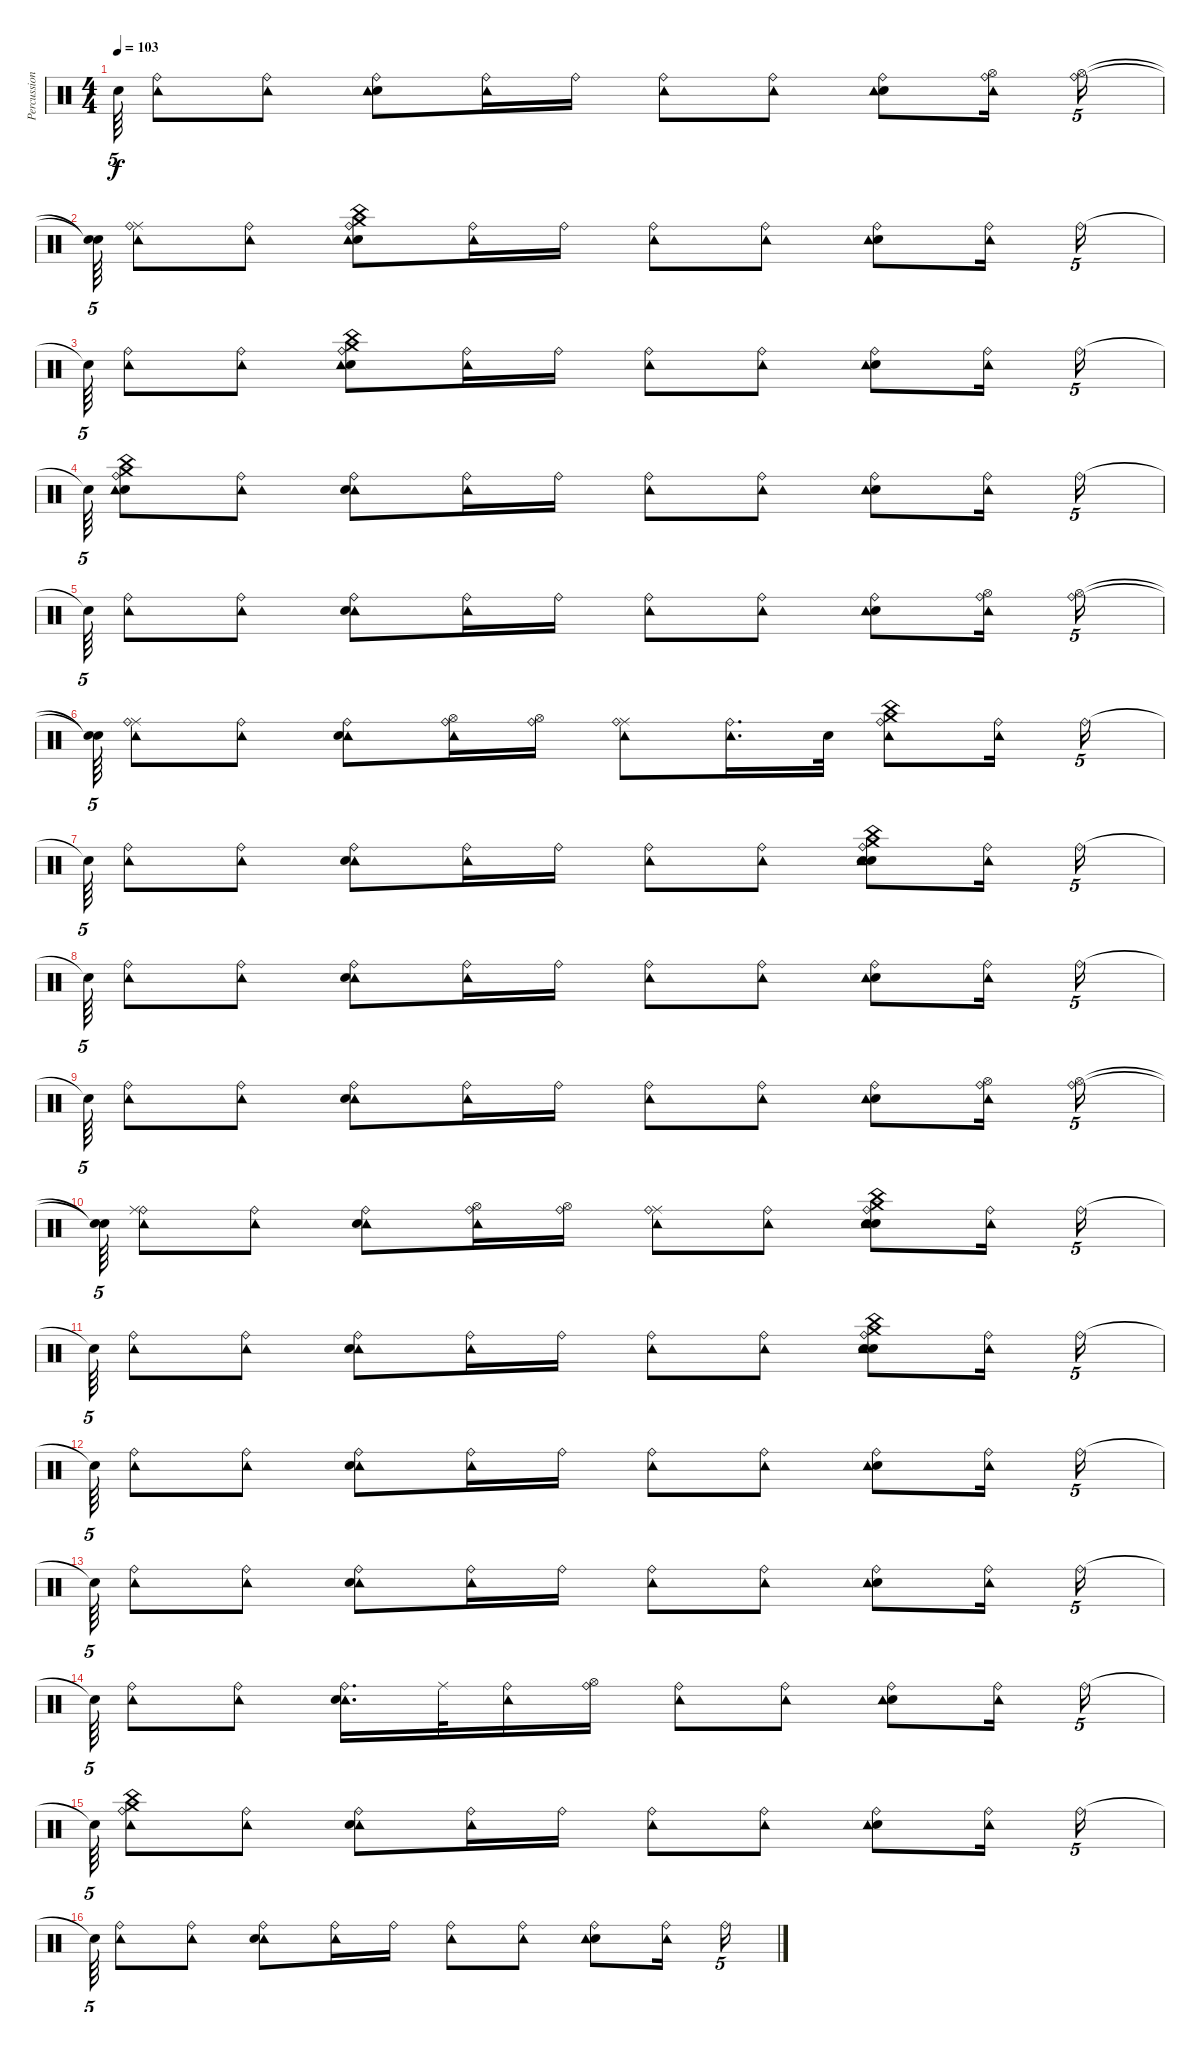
\track ("Percussion" "Percussion") {instrument percussion}
\staff {score}
\articulation defaults
\ts (4 4)
\tempo 103
\clef neutral
\ks c "Snare (hit)"{t}.64{tu (5 4) dy f}
("Ride (bell)" "Tambourine (hit)").8 ("Ride (bell)" "Tambourine (hit)").8 ("Snare (hit) 2" "Ride (bell)" "Tambourine (hit)").8 ("Ride (bell)" "Tambourine (hit)").16 "Ride (bell)".16 ("Ride (bell)" "Tambourine (hit)").8 ("Ride (bell)" "Tambourine (hit)").8 ("Snare (hit) 2" "Ride (bell)" "Tambourine (hit)").8 ("Hi-Hat (open)" "Ride (bell)" "Tambourine (hit)").16 ("Hi-Hat (open)" "Ride (bell)").16{tu (5 4)} |
("Snare (hit)"{t} "Snare (hit)"{t}).64{tu (5 4)} ("Ride (middle)" "Ride (bell)" "Tambourine (hit)").8 ("Ride (bell)" "Tambourine (hit)").8 ("Snare (hit) 2" "Crash medium (hit)" "China (hit)" "Ride (bell)" "Tambourine (hit)").8 ("Ride (bell)" "Tambourine (hit)").16 "Ride (bell)".16 ("Ride (bell)" "Tambourine (hit)").8 ("Ride (bell)" "Tambourine (hit)").8 ("Ride (bell)" "Snare (hit) 2" "Tambourine (hit)").8 ("Ride (bell)" "Tambourine (hit)").16 "Ride (bell)".16{tu (5 4)} |
"Snare (hit)"{t}.64{tu (5 4)} ("Ride (bell)" "Tambourine (hit)").8 ("Ride (bell)" "Tambourine (hit)").8 ("Snare (hit) 2" "Crash medium (hit)" "China (hit)" "Ride (bell)" "Tambourine (hit)").8 ("Ride (bell)" "Tambourine (hit)").16 "Ride (bell)".16 ("Ride (bell)" "Tambourine (hit)").8 ("Ride (bell)" "Tambourine (hit)").8 ("Ride (bell)" "Snare (hit) 2" "Tambourine (hit)").8 ("Ride (bell)" "Tambourine (hit)").16 "Ride (bell)".16{tu (5 4)} |
"Snare (hit)"{t}.64{tu (5 4)} ("Snare (hit) 2" "Crash medium (hit)" "China (hit)" "Ride (bell)" "Tambourine (hit)").8 ("Ride (bell)" "Tambourine (hit)").8 ("Ride (bell)" "Tambourine (hit)" "Snare (hit) 2").8 ("Ride (bell)" "Tambourine (hit)").16 "Ride (bell)".16 ("Ride (bell)" "Tambourine (hit)").8 ("Ride (bell)" "Tambourine (hit)").8 ("Ride (bell)" "Snare (hit) 2" "Tambourine (hit)").8 ("Ride (bell)" "Tambourine (hit)").16 "Ride (bell)".16{tu (5 4)} |
"Snare (hit)"{t}.64{tu (5 4)} ("Ride (bell)" "Tambourine (hit)").8 ("Ride (bell)" "Tambourine (hit)").8 ("Ride (bell)" "Tambourine (hit)" "Snare (hit) 2").8 ("Ride (bell)" "Tambourine (hit)").16 "Ride (bell)".16 ("Ride (bell)" "Tambourine (hit)").8 ("Ride (bell)" "Tambourine (hit)").8 ("Ride (bell)" "Snare (hit) 2" "Tambourine (hit)").8 ("Hi-Hat (open)" "Ride (bell)" "Tambourine (hit)").16 ("Hi-Hat (open)" "Ride (bell)").16{tu (5 4)} |
("Snare (hit)"{t} "Snare (hit)"{t}).64{tu (5 4)} ("Ride (middle)" "Ride (bell)" "Tambourine (hit)").8 ("Ride (bell)" "Tambourine (hit)").8 ("Ride (bell)" "Tambourine (hit)" "Snare (hit) 2").8 ("Hi-Hat (open)" "Ride (bell)" "Tambourine (hit)").16 ("Hi-Hat (open)" "Ride (bell)").16 ("Ride (middle)" "Ride (bell)" "Tambourine (hit)").8 ("Ride (bell)" "Tambourine (hit)").16{d} "Snare (hit) 2".32 ("China (hit)" "Crash medium (hit)" "Ride (bell)" "Tambourine (hit)").8 ("Ride (bell)" "Tambourine (hit)").16 "Ride (bell)".16{tu (5 4)} |
"Snare (hit)"{t}.64{tu (5 4)} ("Ride (bell)" "Tambourine (hit)").8 ("Ride (bell)" "Tambourine (hit)").8 ("Ride (bell)" "Tambourine (hit)" "Snare (hit) 2").8 ("Ride (bell)" "Tambourine (hit)").16 "Ride (bell)".16 ("Ride (bell)" "Tambourine (hit)").8 ("Ride (bell)" "Tambourine (hit)").8 ("Snare (hit) 2" "Crash medium (hit)" "China (hit)" "Ride (bell)" "Electric Snare (hit)" "Tambourine (hit)").8 ("Ride (bell)" "Tambourine (hit)").16 "Ride (bell)".16{tu (5 4)} |
"Snare (hit)"{t}.64{tu (5 4)} ("Ride (bell)" "Tambourine (hit)").8 ("Ride (bell)" "Tambourine (hit)").8 ("Ride (bell)" "Tambourine (hit)" "Snare (hit) 2").8 ("Ride (bell)" "Tambourine (hit)").16 "Ride (bell)".16 ("Ride (bell)" "Tambourine (hit)").8 ("Ride (bell)" "Tambourine (hit)").8 ("Ride (bell)" "Snare (hit) 2" "Tambourine (hit)").8 ("Ride (bell)" "Tambourine (hit)").16 "Ride (bell)".16{tu (5 4)} |
"Snare (hit)"{t}.64{tu (5 4)} ("Ride (bell)" "Tambourine (hit)").8 ("Ride (bell)" "Tambourine (hit)").8 ("Ride (bell)" "Tambourine (hit)" "Snare (hit) 2").8 ("Ride (bell)" "Tambourine (hit)").16 "Ride (bell)".16 ("Ride (bell)" "Tambourine (hit)").8 ("Ride (bell)" "Tambourine (hit)").8 ("Ride (bell)" "Snare (hit) 2" "Tambourine (hit)").8 ("Hi-Hat (open)" "Ride (bell)" "Tambourine (hit)").16 ("Hi-Hat (open)" "Ride (bell)").16{tu (5 4)} |
("Snare (hit)"{t} "Snare (hit)"{t}).64{tu (5 4)} ("Ride (bell)" "Tambourine (hit)" "Ride (middle)").8 ("Ride (bell)" "Tambourine (hit)").8 ("Ride (bell)" "Tambourine (hit)" "Snare (hit) 2").8 ("Hi-Hat (open)" "Ride (bell)" "Tambourine (hit)").16 ("Hi-Hat (open)" "Ride (bell)").16 ("Ride (middle)" "Ride (bell)" "Tambourine (hit)").8 ("Ride (bell)" "Tambourine (hit)").8 ("China (hit)" "Crash medium (hit)" "Electric Snare (hit)" "Ride (bell)" "Snare (hit) 2" "Tambourine (hit)").8 ("Ride (bell)" "Tambourine (hit)").16 "Ride (bell)".16{tu (5 4)} |
"Snare (hit)"{t}.64{tu (5 4)} ("Ride (bell)" "Tambourine (hit)").8 ("Ride (bell)" "Tambourine (hit)").8 ("Ride (bell)" "Tambourine (hit)" "Snare (hit) 2").8 ("Ride (bell)" "Tambourine (hit)").16 "Ride (bell)".16 ("Ride (bell)" "Tambourine (hit)").8 ("Ride (bell)" "Tambourine (hit)").8 ("Snare (hit) 2" "Crash medium (hit)" "China (hit)" "Ride (bell)" "Electric Snare (hit)" "Tambourine (hit)").8 ("Ride (bell)" "Tambourine (hit)").16 "Ride (bell)".16{tu (5 4)} |
"Snare (hit)"{t}.64{tu (5 4)} ("Ride (bell)" "Tambourine (hit)").8 ("Ride (bell)" "Tambourine (hit)").8 ("Ride (bell)" "Tambourine (hit)" "Snare (hit) 2").8 ("Ride (bell)" "Tambourine (hit)").16 "Ride (bell)".16 ("Ride (bell)" "Tambourine (hit)").8 ("Ride (bell)" "Tambourine (hit)").8 ("Ride (bell)" "Snare (hit) 2" "Tambourine (hit)").8 ("Ride (bell)" "Tambourine (hit)").16 "Ride (bell)".16{tu (5 4)} |
"Snare (hit)"{t}.64{tu (5 4)} ("Ride (bell)" "Tambourine (hit)").8 ("Ride (bell)" "Tambourine (hit)").8 ("Ride (bell)" "Tambourine (hit)" "Snare (hit) 2").8 ("Ride (bell)" "Tambourine (hit)").16 "Ride (bell)".16 ("Ride (bell)" "Tambourine (hit)").8 ("Ride (bell)" "Tambourine (hit)").8 ("Ride (bell)" "Snare (hit) 2" "Tambourine (hit)").8 ("Ride (bell)" "Tambourine (hit)").16 "Ride (bell)".16{tu (5 4)} |
"Snare (hit)"{t}.64{tu (5 4)} ("Ride (bell)" "Tambourine (hit)").8 ("Ride (bell)" "Tambourine (hit)").8 ("Ride (bell)" "Tambourine (hit)" "Snare (hit) 2").16{d} "Ride (middle)".32 ("Ride (bell)" "Tambourine (hit)").16 ("Hi-Hat (open)" "Ride (bell)").16 ("Ride (bell)" "Tambourine (hit)").8 ("Ride (bell)" "Tambourine (hit)").8 ("Snare (hit) 2" "Ride (bell)" "Tambourine (hit)").8 ("Ride (bell)" "Tambourine (hit)").16 "Ride (bell)".16{tu (5 4)} |
"Snare (hit)"{t}.64{tu (5 4)} ("Crash medium (hit)" "China (hit)" "Ride (bell)" "Tambourine (hit)").8 ("Ride (bell)" "Tambourine (hit)").8 ("Ride (bell)" "Tambourine (hit)" "Snare (hit) 2").8 ("Ride (bell)" "Tambourine (hit)").16 "Ride (bell)".16 ("Ride (bell)" "Tambourine (hit)").8 ("Ride (bell)" "Tambourine (hit)").8 ("Ride (bell)" "Snare (hit) 2" "Tambourine (hit)").8 ("Ride (bell)" "Tambourine (hit)").16 "Ride (bell)".16{tu (5 4)} |
"Snare (hit)"{t}.64{tu (5 4)} ("Ride (bell)" "Tambourine (hit)").8 ("Ride (bell)" "Tambourine (hit)").8 ("Ride (bell)" "Tambourine (hit)" "Snare (hit) 2").8 ("Ride (bell)" "Tambourine (hit)").16 "Ride (bell)".16 ("Ride (bell)" "Tambourine (hit)").8 ("Ride (bell)" "Tambourine (hit)").8 ("Ride (bell)" "Snare (hit) 2" "Tambourine (hit)").8 ("Ride (bell)" "Tambourine (hit)").16 "Ride (bell)".16{tu (5 4)}
